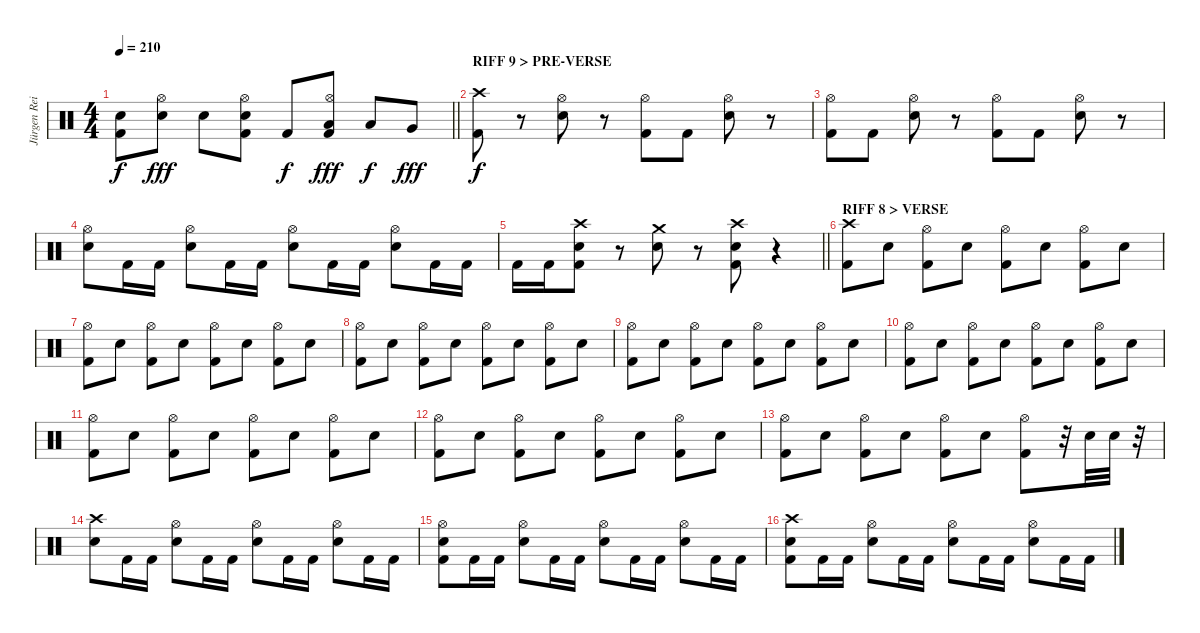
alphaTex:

\track ("Jürgen Reil" "Jürgen Rei") {instrument percussion}
\staff {score}
\articulation defaults
\ts (4 4)
\tempo 210
\clef neutral
\barLineRight lightlight
\ks c
("Electric Snare (hit)" "Kick (hit) 2").8{dy f} ("Hi-Hat (open)" "Electric Snare (hit)").8{dy fff} "Electric Snare (hit)".8 ("Hi-Hat (open)" "Electric Snare (hit)" "Kick (hit) 2").8 "Kick (hit) 2".8{dy f} ("Hi-Hat (open)" "Low Tom (hit)" "Kick (hit) 2").8{dy fff} "Low Tom (hit)".8{dy f} "Very Low Tom (hit)".8{dy fff} |
\section ("" "RIFF 9 > PRE-VERSE")
("Crash high (hit)" "Kick (hit) 2").8{dy f} r.8 ("Hi-Hat (open)" "Electric Snare (hit)").8 r.8 ("Hi-Hat (open)" "Kick (hit) 2").8 "Kick (hit) 2".8 ("Hi-Hat (open)" "Electric Snare (hit)").8 r.8 |
("Hi-Hat (open)" "Kick (hit) 2").8 "Kick (hit) 2".8 ("Hi-Hat (open)" "Electric Snare (hit)").8 r.8 ("Hi-Hat (open)" "Kick (hit) 2").8 "Kick (hit) 2".8 ("Hi-Hat (open)" "Electric Snare (hit)").8 r.8 |
("Hi-Hat (open)" "Electric Snare (hit)").8 "Kick (hit) 2".16 "Kick (hit) 2".16 ("Hi-Hat (open)" "Electric Snare (hit)").8 "Kick (hit) 2".16 "Kick (hit) 2".16 ("Hi-Hat (open)" "Electric Snare (hit)").8 "Kick (hit) 2".16 "Kick (hit) 2".16 ("Hi-Hat (open)" "Electric Snare (hit)").8 "Kick (hit) 2".16 "Kick (hit) 2".16 |
\barLineRight lightlight "Kick (hit) 2".16 "Kick (hit) 2".16
("Crash high (hit)" "Electric Snare (hit)" "Kick (hit) 2").8 r.8 ("Crash medium (hit)" "Electric Snare (hit)").8 r.8 ("Crash high (hit)" "Electric Snare (hit)" "Kick (hit) 2").8 r.4 |
\section ("" "RIFF 8 > VERSE")
("Crash high (hit)" "Kick (hit) 2").8 "Electric Snare (hit)".8 ("Hi-Hat (open)" "Kick (hit) 2").8 "Electric Snare (hit)".8 ("Hi-Hat (open)" "Kick (hit) 2").8 "Electric Snare (hit)".8 ("Hi-Hat (open)" "Kick (hit) 2").8 "Electric Snare (hit)".8 |
("Hi-Hat (open)" "Kick (hit) 2").8 "Electric Snare (hit)".8 ("Hi-Hat (open)" "Kick (hit) 2").8 "Electric Snare (hit)".8 ("Hi-Hat (open)" "Kick (hit) 2").8 "Electric Snare (hit)".8 ("Hi-Hat (open)" "Kick (hit) 2").8 "Electric Snare (hit)".8 |
("Hi-Hat (open)" "Kick (hit) 2").8 "Electric Snare (hit)".8 ("Hi-Hat (open)" "Kick (hit) 2").8 "Electric Snare (hit)".8 ("Hi-Hat (open)" "Kick (hit) 2").8 "Electric Snare (hit)".8 ("Hi-Hat (open)" "Kick (hit) 2").8 "Electric Snare (hit)".8 |
("Hi-Hat (open)" "Kick (hit) 2").8 "Electric Snare (hit)".8 ("Hi-Hat (open)" "Kick (hit) 2").8 "Electric Snare (hit)".8 ("Hi-Hat (open)" "Kick (hit) 2").8 "Electric Snare (hit)".8 ("Hi-Hat (open)" "Kick (hit) 2").8 "Electric Snare (hit)".8 |
("Hi-Hat (open)" "Kick (hit) 2").8 "Electric Snare (hit)".8 ("Hi-Hat (open)" "Kick (hit) 2").8 "Electric Snare (hit)".8 ("Hi-Hat (open)" "Kick (hit) 2").8 "Electric Snare (hit)".8 ("Hi-Hat (open)" "Kick (hit) 2").8 "Electric Snare (hit)".8 |
("Hi-Hat (open)" "Kick (hit) 2").8 "Electric Snare (hit)".8 ("Hi-Hat (open)" "Kick (hit) 2").8 "Electric Snare (hit)".8 ("Hi-Hat (open)" "Kick (hit) 2").8 "Electric Snare (hit)".8 ("Hi-Hat (open)" "Kick (hit) 2").8 "Electric Snare (hit)".8 |
("Hi-Hat (open)" "Kick (hit) 2").8 "Electric Snare (hit)".8 ("Hi-Hat (open)" "Kick (hit) 2").8 "Electric Snare (hit)".8 ("Hi-Hat (open)" "Kick (hit) 2").8 "Electric Snare (hit)".8 ("Hi-Hat (open)" "Kick (hit) 2").8 "Electric Snare (hit)".8 |
("Hi-Hat (open)" "Kick (hit) 2").8 "Electric Snare (hit)".8 ("Hi-Hat (open)" "Kick (hit) 2").8 "Electric Snare (hit)".8 ("Hi-Hat (open)" "Kick (hit) 2").8 "Electric Snare (hit)".8 ("Hi-Hat (open)" "Kick (hit) 2").8 r.32 "Electric Snare (hit)".32 "Electric Snare (hit)".32 r.32 |
("Crash high (hit)" "Electric Snare (hit)").8 "Kick (hit) 2".16 "Kick (hit) 2".16 ("Hi-Hat (open)" "Electric Snare (hit)").8 "Kick (hit) 2".16 "Kick (hit) 2".16 ("Hi-Hat (open)" "Electric Snare (hit)").8 "Kick (hit) 2".16 "Kick (hit) 2".16 ("Hi-Hat (open)" "Electric Snare (hit)").8 "Kick (hit) 2".16 "Kick (hit) 2".16 |
("Hi-Hat (open)" "Electric Snare (hit)" "Kick (hit) 2").8 "Kick (hit) 2".16 "Kick (hit) 2".16 ("Hi-Hat (open)" "Electric Snare (hit)").8 "Kick (hit) 2".16 "Kick (hit) 2".16 ("Hi-Hat (open)" "Electric Snare (hit)").8 "Kick (hit) 2".16 "Kick (hit) 2".16 ("Hi-Hat (open)" "Electric Snare (hit)").8 "Kick (hit) 2".16 "Kick (hit) 2".16 |
("Crash high (hit)" "Electric Snare (hit)" "Kick (hit) 2").8 "Kick (hit) 2".16 "Kick (hit) 2".16 ("Hi-Hat (open)" "Electric Snare (hit)").8 "Kick (hit) 2".16 "Kick (hit) 2".16 ("Hi-Hat (open)" "Electric Snare (hit)").8 "Kick (hit) 2".16 "Kick (hit) 2".16 ("Hi-Hat (open)" "Electric Snare (hit)").8 "Kick (hit) 2".16 "Kick (hit) 2".16
